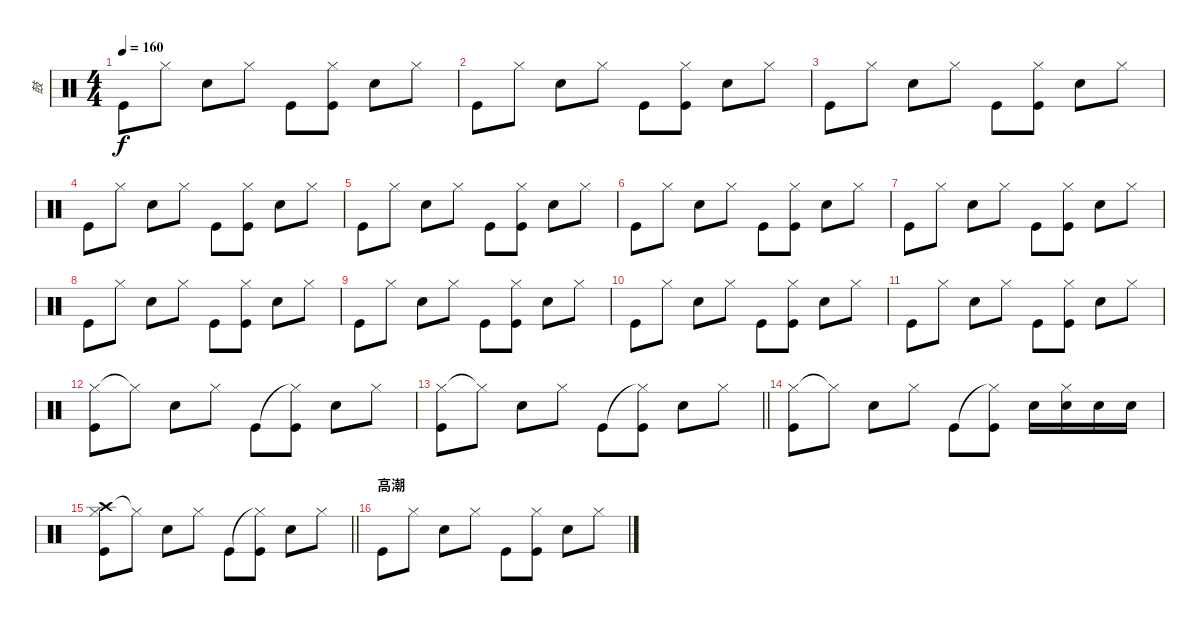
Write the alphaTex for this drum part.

\track ("鼓" "鼓") {instrument percussion}
\staff {score}
\articulation defaults
\ts (4 4)
\tempo 160
\clef neutral
\ks c "Kick (hit)".8{dy f} "Hi-Hat (closed)".8 "Electric Snare (hit)".8 "Hi-Hat (closed)".8 "Kick (hit)".8
("Hi-Hat (closed)" "Kick (hit)").8 "Electric Snare (hit)".8 "Hi-Hat (closed)".8 |
"Kick (hit)".8 "Hi-Hat (closed)".8 "Electric Snare (hit)".8 "Hi-Hat (closed)".8 "Kick (hit)".8 ("Hi-Hat (closed)" "Kick (hit)").8 "Electric Snare (hit)".8 "Hi-Hat (closed)".8 |
"Kick (hit)".8 "Hi-Hat (closed)".8 "Electric Snare (hit)".8 "Hi-Hat (closed)".8 "Kick (hit)".8 ("Hi-Hat (closed)" "Kick (hit)").8 "Electric Snare (hit)".8 "Hi-Hat (closed)".8 |
"Kick (hit)".8 "Hi-Hat (closed)".8 "Electric Snare (hit)".8 "Hi-Hat (closed)".8 "Kick (hit)".8 ("Hi-Hat (closed)" "Kick (hit)").8 "Electric Snare (hit)".8 "Hi-Hat (closed)".8 |
"Kick (hit)".8 "Hi-Hat (closed)".8 "Electric Snare (hit)".8 "Hi-Hat (closed)".8 "Kick (hit)".8 ("Hi-Hat (closed)" "Kick (hit)").8 "Electric Snare (hit)".8 "Hi-Hat (closed)".8 |
"Kick (hit)".8 "Hi-Hat (closed)".8 "Electric Snare (hit)".8 "Hi-Hat (closed)".8 "Kick (hit)".8 ("Hi-Hat (closed)" "Kick (hit)").8 "Electric Snare (hit)".8 "Hi-Hat (closed)".8 |
"Kick (hit)".8 "Hi-Hat (closed)".8 "Electric Snare (hit)".8 "Hi-Hat (closed)".8 "Kick (hit)".8 ("Hi-Hat (closed)" "Kick (hit)").8 "Electric Snare (hit)".8 "Hi-Hat (closed)".8 |
"Kick (hit)".8 "Hi-Hat (closed)".8 "Electric Snare (hit)".8 "Hi-Hat (closed)".8 "Kick (hit)".8 ("Hi-Hat (closed)" "Kick (hit)").8 "Electric Snare (hit)".8 "Hi-Hat (closed)".8 |
"Kick (hit)".8 "Hi-Hat (closed)".8 "Electric Snare (hit)".8 "Hi-Hat (closed)".8 "Kick (hit)".8 ("Hi-Hat (closed)" "Kick (hit)").8 "Electric Snare (hit)".8 "Hi-Hat (closed)".8 |
"Kick (hit)".8 "Hi-Hat (closed)".8 "Electric Snare (hit)".8 "Hi-Hat (closed)".8 "Kick (hit)".8 ("Hi-Hat (closed)" "Kick (hit)").8 "Electric Snare (hit)".8 "Hi-Hat (closed)".8 |
"Kick (hit)".8 "Hi-Hat (closed)".8 "Electric Snare (hit)".8 "Hi-Hat (closed)".8 "Kick (hit)".8 ("Hi-Hat (closed)" "Kick (hit)").8 "Electric Snare (hit)".8 "Hi-Hat (closed)".8 |
("Hi-Hat (closed)" "Kick (hit)").8 "Hi-Hat (closed)"{t}.8 "Electric Snare (hit)".8 "Hi-Hat (closed)".8 "Kick (hit)".8 ("Hi-Hat (closed)"{t} "Kick (hit)").8 "Electric Snare (hit)".8 "Hi-Hat (closed)".8 |
\barLineRight lightlight
("Hi-Hat (closed)" "Kick (hit)").8 "Hi-Hat (closed)"{t}.8 "Electric Snare (hit)".8 "Hi-Hat (closed)".8 "Kick (hit)".8 ("Hi-Hat (closed)"{t} "Kick (hit)").8 "Electric Snare (hit)".8 "Hi-Hat (closed)".8 |
("Hi-Hat (closed)" "Kick (hit)").8 "Hi-Hat (closed)"{t}.8 "Electric Snare (hit)".8 "Hi-Hat (closed)".8 "Kick (hit)".8 ("Hi-Hat (closed)"{t} "Kick (hit)").8 "Electric Snare (hit)".16 ("Hi-Hat (closed)" "Electric Snare (hit)").16 "Electric Snare (hit)".16 "Electric Snare (hit)".16 |
\barLineRight lightlight
("Crash high (hit)" "Hi-Hat (closed)" "Kick (hit)").8 "Hi-Hat (closed)"{t}.8 "Electric Snare (hit)".8 "Hi-Hat (closed)".8 "Kick (hit)".8 ("Hi-Hat (closed)"{t} "Kick (hit)").8 "Electric Snare (hit)".8 "Hi-Hat (closed)".8 |
\section ("" "高潮")
"Kick (hit)".8 "Hi-Hat (closed)".8 "Electric Snare (hit)".8 "Hi-Hat (closed)".8 "Kick (hit)".8 ("Hi-Hat (closed)" "Kick (hit)").8 "Electric Snare (hit)".8 "Hi-Hat (closed)".8
